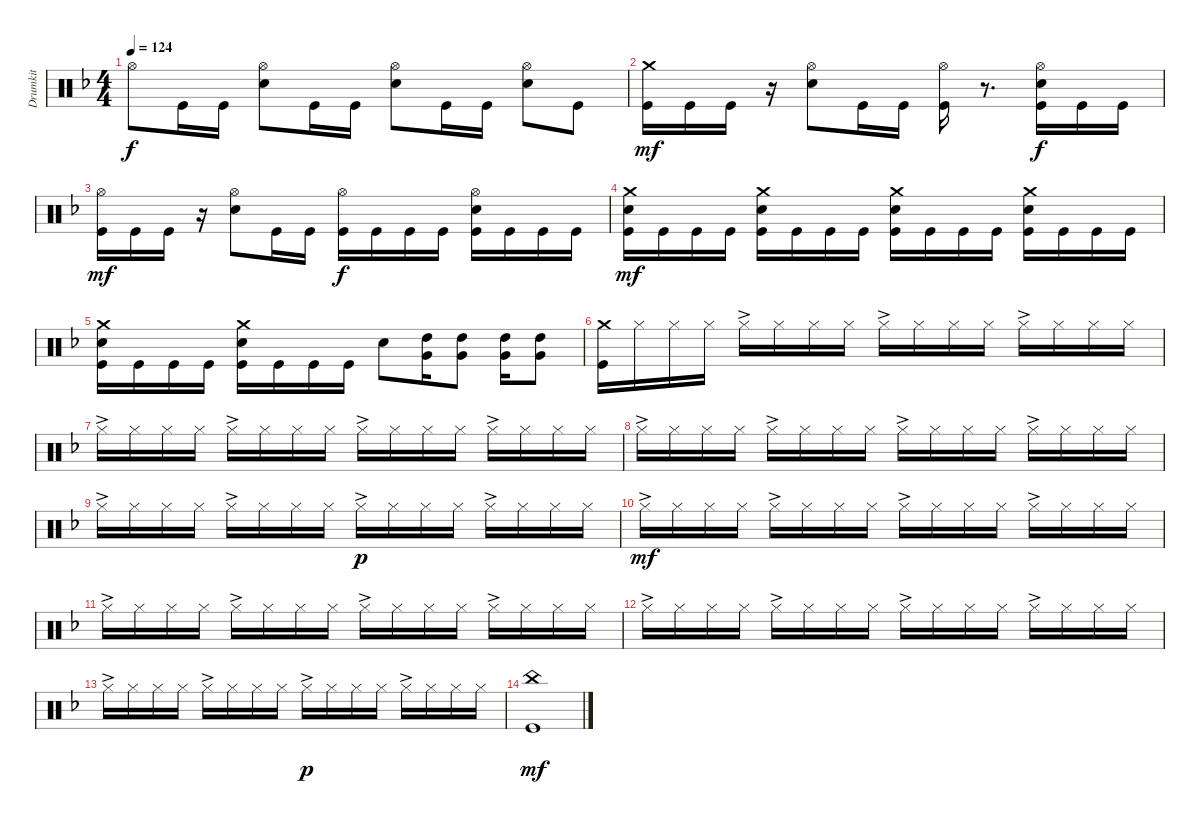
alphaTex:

\track ("Drumkit" "Drumkit") {instrument percussion}
\staff {score}
\articulation defaults
\ts (4 4)
\tempo 124
\clef neutral
\ks dminor "Hi-Hat (open)".8{dy f} "Kick (hit)".16 "Kick (hit)".16
("Snare (hit) 2" "Hi-Hat (open)").8 "Kick (hit)".16 "Kick (hit)".16 ("Snare (hit) 2" "Hi-Hat (open)").8 "Kick (hit)".16 "Kick (hit)".16 ("Snare (hit) 2" "Hi-Hat (open)").8 "Kick (hit)".8 |
("Kick (hit)" "Crash medium (hit)").16{dy mf} "Kick (hit)".16 "Kick (hit)".16 r.16 ("Snare (hit) 2" "Hi-Hat (open)").8 "Kick (hit)".16 "Kick (hit)".16 ("Kick (hit)" "Hi-Hat (open)").16 r.8{d} ("Kick (hit)" "Hi-Hat (open)" "Snare (hit) 2").16{dy f} "Kick (hit)".16 "Kick (hit)".16 |
("Kick (hit)" "Hi-Hat (open)").16{dy mf} "Kick (hit)".16 "Kick (hit)".16 r.16 ("Snare (hit) 2" "Hi-Hat (open)").8 "Kick (hit)".16 "Kick (hit)".16 ("Kick (hit)" "Hi-Hat (open)").16{dy f} "Kick (hit)".16 "Kick (hit)".16 "Kick (hit)".16 ("Kick (hit)" "Hi-Hat (open)" "Snare (hit) 2").16 "Kick (hit)".16 "Kick (hit)".16 "Kick (hit)".16 |
("Crash medium (hit)" "Kick (hit)" "Snare (hit) 2").16{dy mf} "Kick (hit)".16 "Kick (hit)".16 "Kick (hit)".16 ("Kick (hit)" "Snare (hit) 2" "Crash medium (hit)").16 "Kick (hit)".16 "Kick (hit)".16 "Kick (hit)".16 ("Kick (hit)" "Snare (hit) 2" "Crash medium (hit)").16 "Kick (hit)".16 "Kick (hit)".16 "Kick (hit)".16 ("Kick (hit)" "Snare (hit) 2" "Crash medium (hit)").16 "Kick (hit)".16 "Kick (hit)".16 "Kick (hit)".16 |
("Crash medium (hit)" "Kick (hit)" "Snare (hit) 2").16 "Kick (hit)".16 "Kick (hit)".16 "Kick (hit)".16 ("Kick (hit)" "Snare (hit) 2" "Crash medium (hit)").16 "Kick (hit)".16 "Kick (hit)".16 "Kick (hit)".16 "Snare (hit) 2".8 ("Very Low Tom (hit)" "High Tom (hit)").16 ("Very Low Tom (hit)" "High Tom (hit)").8 ("Very Low Tom (hit)" "High Tom (hit)").16 ("Very Low Tom (hit)" "High Tom (hit)").8 |
("Kick (hit)" "Crash medium (hit)").16 "Hi-Hat (closed)".16 "Hi-Hat (closed)".16 "Hi-Hat (closed)".16 "Hi-Hat (closed)"{ac}.16 "Hi-Hat (closed)".16 "Hi-Hat (closed)".16 "Hi-Hat (closed)".16 "Hi-Hat (closed)"{ac}.16 "Hi-Hat (closed)".16 "Hi-Hat (closed)".16 "Hi-Hat (closed)".16 "Hi-Hat (closed)"{ac}.16 "Hi-Hat (closed)".16 "Hi-Hat (closed)".16 "Hi-Hat (closed)".16 |
"Hi-Hat (closed)"{ac}.16 "Hi-Hat (closed)".16 "Hi-Hat (closed)".16 "Hi-Hat (closed)".16 "Hi-Hat (closed)"{ac}.16 "Hi-Hat (closed)".16 "Hi-Hat (closed)".16 "Hi-Hat (closed)".16 "Hi-Hat (closed)"{ac}.16 "Hi-Hat (closed)".16 "Hi-Hat (closed)".16 "Hi-Hat (closed)".16 "Hi-Hat (closed)"{ac}.16 "Hi-Hat (closed)".16 "Hi-Hat (closed)".16 "Hi-Hat (closed)".16 |
"Hi-Hat (closed)"{ac}.16 "Hi-Hat (closed)".16 "Hi-Hat (closed)".16 "Hi-Hat (closed)".16 "Hi-Hat (closed)"{ac}.16 "Hi-Hat (closed)".16 "Hi-Hat (closed)".16 "Hi-Hat (closed)".16 "Hi-Hat (closed)"{ac}.16 "Hi-Hat (closed)".16 "Hi-Hat (closed)".16 "Hi-Hat (closed)".16 "Hi-Hat (closed)"{ac}.16 "Hi-Hat (closed)".16 "Hi-Hat (closed)".16 "Hi-Hat (closed)".16 |
"Hi-Hat (closed)"{ac}.16 "Hi-Hat (closed)".16 "Hi-Hat (closed)".16 "Hi-Hat (closed)".16 "Hi-Hat (closed)"{ac}.16 "Hi-Hat (closed)".16 "Hi-Hat (closed)".16 "Hi-Hat (closed)".16 "Hi-Hat (closed)"{ac}.16{dy p} "Hi-Hat (closed)".16 "Hi-Hat (closed)".16 "Hi-Hat (closed)".16 "Hi-Hat (closed)"{ac}.16 "Hi-Hat (closed)".16 "Hi-Hat (closed)".16 "Hi-Hat (closed)".16 |
"Hi-Hat (closed)"{ac}.16{dy mf} "Hi-Hat (closed)".16 "Hi-Hat (closed)".16 "Hi-Hat (closed)".16 "Hi-Hat (closed)"{ac}.16 "Hi-Hat (closed)".16 "Hi-Hat (closed)".16 "Hi-Hat (closed)".16 "Hi-Hat (closed)"{ac}.16 "Hi-Hat (closed)".16 "Hi-Hat (closed)".16 "Hi-Hat (closed)".16 "Hi-Hat (closed)"{ac}.16 "Hi-Hat (closed)".16 "Hi-Hat (closed)".16 "Hi-Hat (closed)".16 |
"Hi-Hat (closed)"{ac}.16 "Hi-Hat (closed)".16 "Hi-Hat (closed)".16 "Hi-Hat (closed)".16 "Hi-Hat (closed)"{ac}.16 "Hi-Hat (closed)".16 "Hi-Hat (closed)".16 "Hi-Hat (closed)".16 "Hi-Hat (closed)"{ac}.16 "Hi-Hat (closed)".16 "Hi-Hat (closed)".16 "Hi-Hat (closed)".16 "Hi-Hat (closed)"{ac}.16 "Hi-Hat (closed)".16 "Hi-Hat (closed)".16 "Hi-Hat (closed)".16 |
"Hi-Hat (closed)"{ac}.16 "Hi-Hat (closed)".16 "Hi-Hat (closed)".16 "Hi-Hat (closed)".16 "Hi-Hat (closed)"{ac}.16 "Hi-Hat (closed)".16 "Hi-Hat (closed)".16 "Hi-Hat (closed)".16 "Hi-Hat (closed)"{ac}.16 "Hi-Hat (closed)".16 "Hi-Hat (closed)".16 "Hi-Hat (closed)".16 "Hi-Hat (closed)"{ac}.16 "Hi-Hat (closed)".16 "Hi-Hat (closed)".16 "Hi-Hat (closed)".16 |
"Hi-Hat (closed)"{ac}.16 "Hi-Hat (closed)".16 "Hi-Hat (closed)".16 "Hi-Hat (closed)".16 "Hi-Hat (closed)"{ac}.16 "Hi-Hat (closed)".16 "Hi-Hat (closed)".16 "Hi-Hat (closed)".16 "Hi-Hat (closed)"{ac}.16{dy p} "Hi-Hat (closed)".16 "Hi-Hat (closed)".16 "Hi-Hat (closed)".16 "Hi-Hat (closed)"{ac}.16 "Hi-Hat (closed)".16 "Hi-Hat (closed)".16 "Hi-Hat (closed)".16 |
("Kick (hit)" "China (hit)").1{dy mf}
